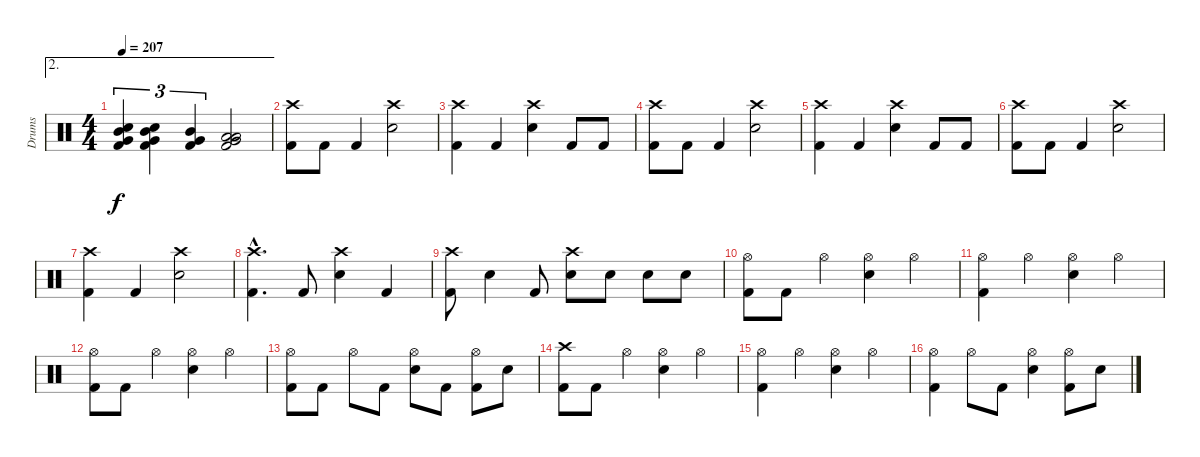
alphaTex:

\track ("Drums" "Drums") {instrument percussion}
\staff {score}
\articulation defaults
\ae 2
\ts (4 4)
\tempo 207
\clef neutral
\ks c
("Mid Tom (hit)" "Very Low Tom (hit)" "Electric Snare (hit)" "Kick (hit) 2").4{tu (3 2) dy f} ("Mid Tom (hit)" "Very Low Tom (hit)" "Snare (hit)" "Kick (hit) 2").4{tu (3 2)} ("Mid Tom (hit)" "Very Low Tom (hit)" "Kick (hit) 2").4{tu (3 2)} ("Low Tom (hit)" "Very Low Tom (hit)" "Low Floor Tom (hit)" "Kick (hit) 2").2 |
("Crash high (hit)" "Kick (hit) 2").8 "Kick (hit) 2".8 "Kick (hit) 2".4 ("Crash high (hit)" "Electric Snare (hit)").2 |
("Crash high (hit)" "Kick (hit) 2").4 "Kick (hit) 2".4 ("Crash high (hit)" "Electric Snare (hit)").4 "Kick (hit) 2".8 "Kick (hit) 2".8 |
("Crash high (hit)" "Kick (hit) 2").8 "Kick (hit) 2".8 "Kick (hit) 2".4 ("Crash high (hit)" "Electric Snare (hit)").2 |
("Crash high (hit)" "Kick (hit) 2").4 "Kick (hit) 2".4 ("Crash high (hit)" "Electric Snare (hit)").4 "Kick (hit) 2".8 "Kick (hit) 2".8 |
("Crash high (hit)" "Kick (hit) 2").8 "Kick (hit) 2".8 "Kick (hit) 2".4 ("Crash high (hit)" "Electric Snare (hit)").2 |
("Crash high (hit)" "Kick (hit) 2").4 "Kick (hit) 2".4 ("Crash high (hit)" "Electric Snare (hit)").2 |
("Crash high (hit)"{hac} "Kick (hit) 2"{hac}).4{d} "Kick (hit) 2".8 ("Crash high (hit)" "Electric Snare (hit)").4 "Kick (hit) 2".4 |
("Crash high (hit)" "Kick (hit) 2").8 "Electric Snare (hit)".4 "Kick (hit) 2".8 ("Crash high (hit)" "Electric Snare (hit)").8 "Electric Snare (hit)".8 "Electric Snare (hit)".8 "Electric Snare (hit)".8 |
("Hi-Hat (open)" "Kick (hit) 2").8 "Kick (hit) 2".8 "Hi-Hat (open)".4 ("Hi-Hat (open)" "Electric Snare (hit)").4 "Hi-Hat (open)".4 |
("Hi-Hat (open)" "Kick (hit) 2").4 "Hi-Hat (open)".4 ("Hi-Hat (open)" "Electric Snare (hit)").4 "Hi-Hat (open)".4 |
("Hi-Hat (open)" "Kick (hit) 2").8 "Kick (hit) 2".8 "Hi-Hat (open)".4 ("Hi-Hat (open)" "Electric Snare (hit)").4 "Hi-Hat (open)".4 |
("Hi-Hat (open)" "Kick (hit) 2").8 "Kick (hit) 2".8 "Hi-Hat (open)".8 "Kick (hit) 2".8 ("Hi-Hat (open)" "Electric Snare (hit)").8 "Kick (hit) 2".8 ("Hi-Hat (open)" "Kick (hit) 2").8 "Electric Snare (hit)".8 |
("Crash high (hit)" "Kick (hit) 2").8 "Kick (hit) 2".8 "Hi-Hat (open)".4 ("Hi-Hat (open)" "Electric Snare (hit)").4 "Hi-Hat (open)".4 |
("Hi-Hat (open)" "Kick (hit) 2").4 "Hi-Hat (open)".4 ("Hi-Hat (open)" "Electric Snare (hit)").4 "Hi-Hat (open)".4 |
("Hi-Hat (open)" "Kick (hit) 2").4 "Hi-Hat (open)".8 "Kick (hit) 2".8 ("Hi-Hat (open)" "Electric Snare (hit)").4 ("Hi-Hat (open)" "Kick (hit) 2").8 "Electric Snare (hit)".8
